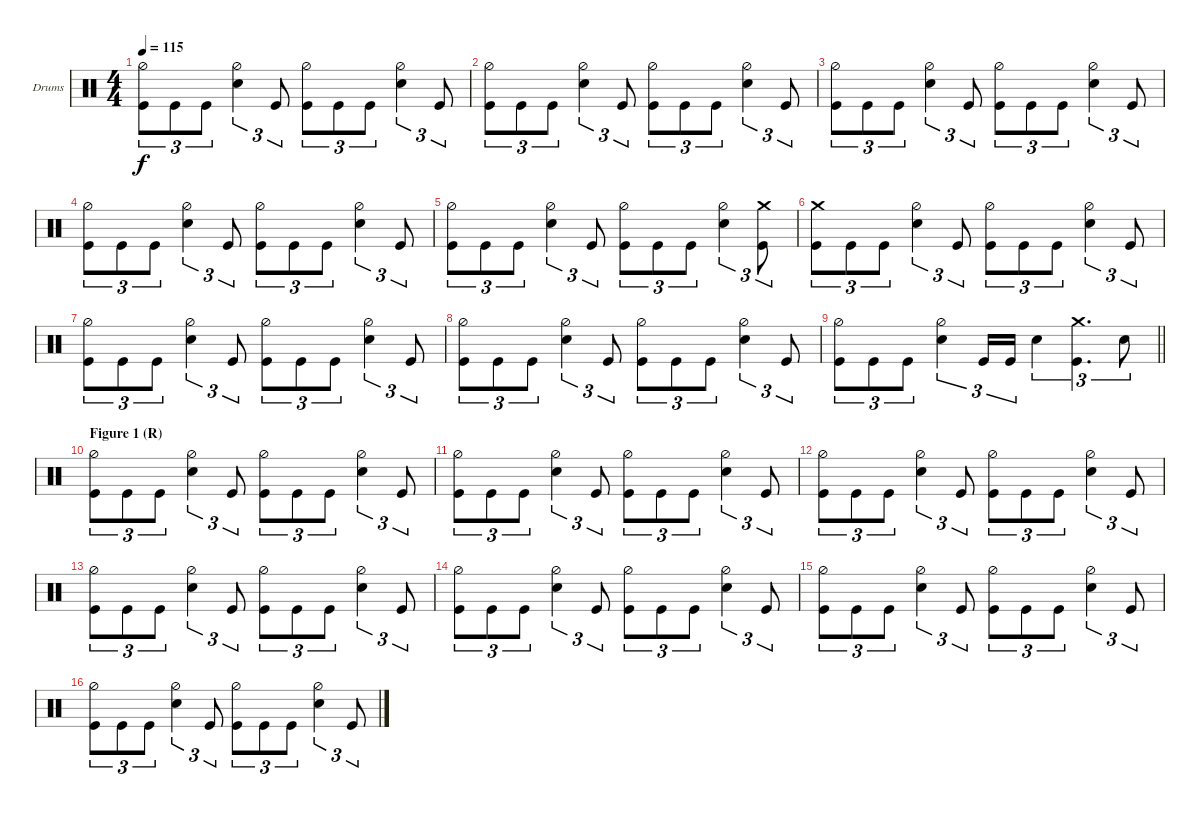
\defaultSystemsLayout 4
\bracketExtendMode groupsimilarinstruments
\firstSystemTrackNameOrientation horizontal
\otherSystemsTrackNameOrientation horizontal
\track ("Drums" "Drums") {instrument percussion}
\staff {score}
\articulation defaults
\ts (4 4)
\tempo 115
\clef neutral
\ks aminor
("Kick (hit)" "Hi-Hat (half)").8{tu (3 2) dy f} "Kick (hit)".8{tu (3 2)} "Kick (hit)".8{tu (3 2)} ("Snare (hit) 2" "Hi-Hat (half)").4{tu (3 2)} "Kick (hit)".8{tu (3 2)} ("Kick (hit)" "Hi-Hat (half)").8{tu (3 2)} "Kick (hit)".8{tu (3 2)} "Kick (hit)".8{tu (3 2)} ("Snare (hit) 2" "Hi-Hat (half)").4{tu (3 2)} "Kick (hit)".8{tu (3 2)} |
("Kick (hit)" "Hi-Hat (half)").8{tu (3 2)} "Kick (hit)".8{tu (3 2)} "Kick (hit)".8{tu (3 2)} ("Snare (hit) 2" "Hi-Hat (half)").4{tu (3 2)} "Kick (hit)".8{tu (3 2)} ("Kick (hit)" "Hi-Hat (half)").8{tu (3 2)} "Kick (hit)".8{tu (3 2)} "Kick (hit)".8{tu (3 2)} ("Snare (hit) 2" "Hi-Hat (half)").4{tu (3 2)} "Kick (hit)".8{tu (3 2)} |
("Kick (hit)" "Hi-Hat (half)").8{tu (3 2)} "Kick (hit)".8{tu (3 2)} "Kick (hit)".8{tu (3 2)} ("Snare (hit) 2" "Hi-Hat (half)").4{tu (3 2)} "Kick (hit)".8{tu (3 2)} ("Kick (hit)" "Hi-Hat (half)").8{tu (3 2)} "Kick (hit)".8{tu (3 2)} "Kick (hit)".8{tu (3 2)} ("Snare (hit) 2" "Hi-Hat (half)").4{tu (3 2)} "Kick (hit)".8{tu (3 2)} |
("Kick (hit)" "Hi-Hat (half)").8{tu (3 2)} "Kick (hit)".8{tu (3 2)} "Kick (hit)".8{tu (3 2)} ("Snare (hit) 2" "Hi-Hat (half)").4{tu (3 2)} "Kick (hit)".8{tu (3 2)} ("Kick (hit)" "Hi-Hat (half)").8{tu (3 2)} "Kick (hit)".8{tu (3 2)} "Kick (hit)".8{tu (3 2)} ("Snare (hit) 2" "Hi-Hat (half)").4{tu (3 2)} "Kick (hit)".8{tu (3 2)} |
("Kick (hit)" "Hi-Hat (half)").8{tu (3 2)} "Kick (hit)".8{tu (3 2)} "Kick (hit)".8{tu (3 2)} ("Snare (hit) 2" "Hi-Hat (half)").4{tu (3 2)} "Kick (hit)".8{tu (3 2)} ("Kick (hit)" "Hi-Hat (half)").8{tu (3 2)} "Kick (hit)".8{tu (3 2)} "Kick (hit)".8{tu (3 2)} ("Snare (hit) 2" "Hi-Hat (half)").4{tu (3 2)} ("Kick (hit)" "Crash medium (hit)").8{tu (3 2)} |
("Kick (hit)" "Crash medium (hit)").8{tu (3 2)} "Kick (hit)".8{tu (3 2)} "Kick (hit)".8{tu (3 2)} ("Snare (hit) 2" "Hi-Hat (half)").4{tu (3 2)} "Kick (hit)".8{tu (3 2)} ("Kick (hit)" "Hi-Hat (half)").8{tu (3 2)} "Kick (hit)".8{tu (3 2)} "Kick (hit)".8{tu (3 2)} ("Snare (hit) 2" "Hi-Hat (half)").4{tu (3 2)} "Kick (hit)".8{tu (3 2)} |
("Kick (hit)" "Hi-Hat (half)").8{tu (3 2)} "Kick (hit)".8{tu (3 2)} "Kick (hit)".8{tu (3 2)} ("Snare (hit) 2" "Hi-Hat (half)").4{tu (3 2)} "Kick (hit)".8{tu (3 2)} ("Kick (hit)" "Hi-Hat (half)").8{tu (3 2)} "Kick (hit)".8{tu (3 2)} "Kick (hit)".8{tu (3 2)} ("Snare (hit) 2" "Hi-Hat (half)").4{tu (3 2)} "Kick (hit)".8{tu (3 2)} |
("Kick (hit)" "Hi-Hat (half)").8{tu (3 2)} "Kick (hit)".8{tu (3 2)} "Kick (hit)".8{tu (3 2)} ("Snare (hit) 2" "Hi-Hat (half)").4{tu (3 2)} "Kick (hit)".8{tu (3 2)} ("Kick (hit)" "Hi-Hat (half)").8{tu (3 2)} "Kick (hit)".8{tu (3 2)} "Kick (hit)".8{tu (3 2)} ("Snare (hit) 2" "Hi-Hat (half)").4{tu (3 2)} "Kick (hit)".8{tu (3 2)} |
\barLineRight lightlight
("Kick (hit)" "Hi-Hat (half)").8{tu (3 2)} "Kick (hit)".8{tu (3 2)} "Kick (hit)".8{tu (3 2)} ("Snare (hit) 2" "Hi-Hat (half)").4{tu (3 2)} "Kick (hit)".16{tu (3 2)} "Kick (hit)".16{tu (3 2)} "Snare (hit) 2".4{tu (3 2)} ("Crash medium (hit)" "Kick (hit)").4{d tu (3 2)} "Snare (hit) 2".8{tu (3 2)} |
\section ("" "Figure 1 (R)")
("Kick (hit)" "Hi-Hat (half)").8{tu (3 2)} "Kick (hit)".8{tu (3 2)} "Kick (hit)".8{tu (3 2)} ("Snare (hit) 2" "Hi-Hat (half)").4{tu (3 2)} "Kick (hit)".8{tu (3 2)} ("Kick (hit)" "Hi-Hat (half)").8{tu (3 2)} "Kick (hit)".8{tu (3 2)} "Kick (hit)".8{tu (3 2)} ("Snare (hit) 2" "Hi-Hat (half)").4{tu (3 2)} "Kick (hit)".8{tu (3 2)} |
("Kick (hit)" "Hi-Hat (half)").8{tu (3 2)} "Kick (hit)".8{tu (3 2)} "Kick (hit)".8{tu (3 2)} ("Snare (hit) 2" "Hi-Hat (half)").4{tu (3 2)} "Kick (hit)".8{tu (3 2)} ("Kick (hit)" "Hi-Hat (half)").8{tu (3 2)} "Kick (hit)".8{tu (3 2)} "Kick (hit)".8{tu (3 2)} ("Snare (hit) 2" "Hi-Hat (half)").4{tu (3 2)} "Kick (hit)".8{tu (3 2)} |
("Kick (hit)" "Hi-Hat (half)").8{tu (3 2)} "Kick (hit)".8{tu (3 2)} "Kick (hit)".8{tu (3 2)} ("Snare (hit) 2" "Hi-Hat (half)").4{tu (3 2)} "Kick (hit)".8{tu (3 2)} ("Kick (hit)" "Hi-Hat (half)").8{tu (3 2)} "Kick (hit)".8{tu (3 2)} "Kick (hit)".8{tu (3 2)} ("Snare (hit) 2" "Hi-Hat (half)").4{tu (3 2)} "Kick (hit)".8{tu (3 2)} |
("Kick (hit)" "Hi-Hat (half)").8{tu (3 2)} "Kick (hit)".8{tu (3 2)} "Kick (hit)".8{tu (3 2)} ("Snare (hit) 2" "Hi-Hat (half)").4{tu (3 2)} "Kick (hit)".8{tu (3 2)} ("Kick (hit)" "Hi-Hat (half)").8{tu (3 2)} "Kick (hit)".8{tu (3 2)} "Kick (hit)".8{tu (3 2)} ("Snare (hit) 2" "Hi-Hat (half)").4{tu (3 2)} "Kick (hit)".8{tu (3 2)} |
("Kick (hit)" "Hi-Hat (half)").8{tu (3 2)} "Kick (hit)".8{tu (3 2)} "Kick (hit)".8{tu (3 2)} ("Snare (hit) 2" "Hi-Hat (half)").4{tu (3 2)} "Kick (hit)".8{tu (3 2)} ("Kick (hit)" "Hi-Hat (half)").8{tu (3 2)} "Kick (hit)".8{tu (3 2)} "Kick (hit)".8{tu (3 2)} ("Snare (hit) 2" "Hi-Hat (half)").4{tu (3 2)} "Kick (hit)".8{tu (3 2)} |
("Kick (hit)" "Hi-Hat (half)").8{tu (3 2)} "Kick (hit)".8{tu (3 2)} "Kick (hit)".8{tu (3 2)} ("Snare (hit) 2" "Hi-Hat (half)").4{tu (3 2)} "Kick (hit)".8{tu (3 2)} ("Kick (hit)" "Hi-Hat (half)").8{tu (3 2)} "Kick (hit)".8{tu (3 2)} "Kick (hit)".8{tu (3 2)} ("Snare (hit) 2" "Hi-Hat (half)").4{tu (3 2)} "Kick (hit)".8{tu (3 2)} |
("Kick (hit)" "Hi-Hat (half)").8{tu (3 2)} "Kick (hit)".8{tu (3 2)} "Kick (hit)".8{tu (3 2)} ("Snare (hit) 2" "Hi-Hat (half)").4{tu (3 2)} "Kick (hit)".8{tu (3 2)} ("Kick (hit)" "Hi-Hat (half)").8{tu (3 2)} "Kick (hit)".8{tu (3 2)} "Kick (hit)".8{tu (3 2)} ("Snare (hit) 2" "Hi-Hat (half)").4{tu (3 2)} "Kick (hit)".8{tu (3 2)}
